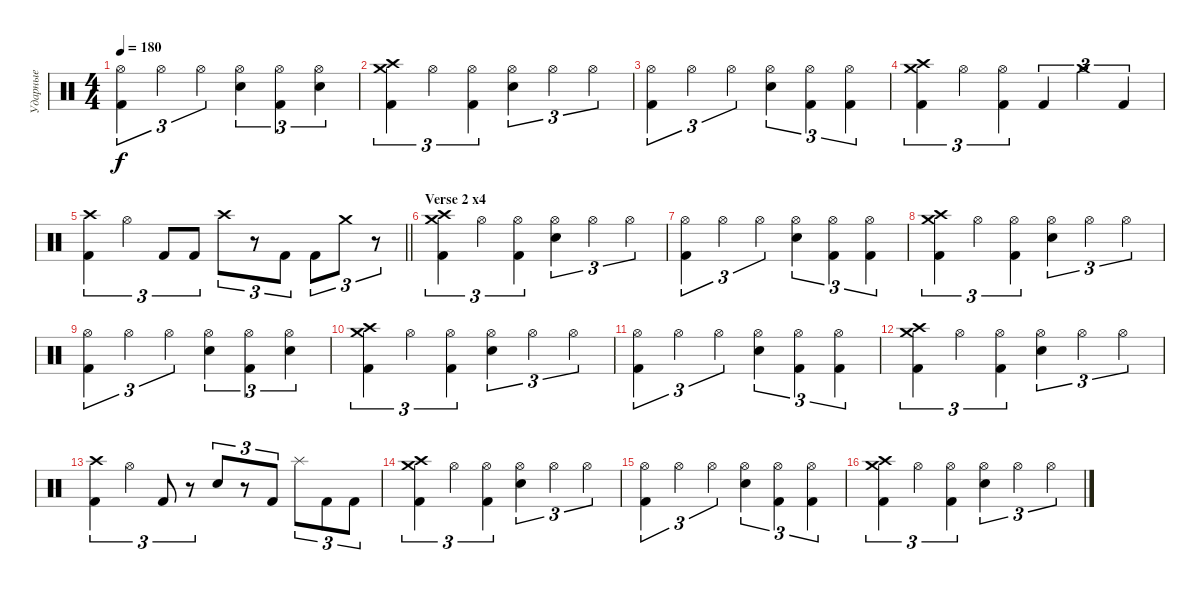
\track ("Ударные" "Ударные") {instrument percussion}
\staff {score}
\articulation defaults
\ts (4 4)
\tempo 180
\clef neutral
\ks c
("Hi-Hat (open)" "Kick (hit) 2").4{tu (3 2) dy f} "Hi-Hat (open)".4{tu (3 2)} "Hi-Hat (open)".4{tu (3 2)} ("Hi-Hat (open)" "Electric Snare (hit)").4{tu (3 2)} ("Hi-Hat (open)" "Kick (hit) 2").4{tu (3 2)} ("Hi-Hat (open)" "Electric Snare (hit)").4{tu (3 2)} |
("Crash medium (hit)" "Crash high (hit)" "Kick (hit) 2").4{tu (3 2)} "Hi-Hat (open)".4{tu (3 2)} ("Hi-Hat (open)" "Kick (hit) 2").4{tu (3 2)} ("Hi-Hat (open)" "Electric Snare (hit)").4{tu (3 2)} "Hi-Hat (open)".4{tu (3 2)} "Hi-Hat (open)".4{tu (3 2)} |
("Hi-Hat (open)" "Kick (hit) 2").4{tu (3 2)} "Hi-Hat (open)".4{tu (3 2)} "Hi-Hat (open)".4{tu (3 2)} ("Hi-Hat (open)" "Electric Snare (hit)").4{tu (3 2)} ("Hi-Hat (open)" "Kick (hit) 2").4{tu (3 2)} ("Hi-Hat (open)" "Kick (hit) 2").4{tu (3 2)} |
("Crash medium (hit)" "Crash high (hit)" "Kick (hit) 2").4{tu (3 2)} "Hi-Hat (open)".4{tu (3 2)} ("Hi-Hat (open)" "Kick (hit) 2").4{tu (3 2)} "Kick (hit) 2".4{tu (3 2)} "Crash medium (hit)".4{tu (3 2)} "Kick (hit) 2".4{tu (3 2)} |
\barLineRight lightlight
("Crash high (hit)" "Kick (hit) 2").4{tu (3 2)} "Hi-Hat (open)".4{tu (3 2)} "Kick (hit) 2".8{tu (3 2)} "Kick (hit) 2".8{tu (3 2)} "Crash high (hit)".8{tu (3 2)} r.8{tu (3 2)} "Kick (hit) 2".8{tu (3 2)} "Kick (hit) 2".8{tu (3 2)} "Crash medium (hit)".8{tu (3 2)} r.8{tu (3 2)} |
\section ("" "Verse 2 x4")
("Crash medium (hit)" "Crash high (hit)" "Kick (hit) 2").4{tu (3 2)} "Hi-Hat (open)".4{tu (3 2)} ("Hi-Hat (open)" "Kick (hit) 2").4{tu (3 2)} ("Hi-Hat (open)" "Electric Snare (hit)").4{tu (3 2)} "Hi-Hat (open)".4{tu (3 2)} "Hi-Hat (open)".4{tu (3 2)} |
("Hi-Hat (open)" "Kick (hit) 2").4{tu (3 2)} "Hi-Hat (open)".4{tu (3 2)} "Hi-Hat (open)".4{tu (3 2)} ("Hi-Hat (open)" "Electric Snare (hit)").4{tu (3 2)} ("Hi-Hat (open)" "Kick (hit) 2").4{tu (3 2)} ("Hi-Hat (open)" "Kick (hit) 2").4{tu (3 2)} |
("Crash medium (hit)" "Crash high (hit)" "Kick (hit) 2").4{tu (3 2)} "Hi-Hat (open)".4{tu (3 2)} ("Hi-Hat (open)" "Kick (hit) 2").4{tu (3 2)} ("Hi-Hat (open)" "Electric Snare (hit)").4{tu (3 2)} "Hi-Hat (open)".4{tu (3 2)} "Hi-Hat (open)".4{tu (3 2)} |
("Hi-Hat (open)" "Kick (hit) 2").4{tu (3 2)} "Hi-Hat (open)".4{tu (3 2)} "Hi-Hat (open)".4{tu (3 2)} ("Hi-Hat (open)" "Electric Snare (hit)").4{tu (3 2)} ("Hi-Hat (open)" "Kick (hit) 2").4{tu (3 2)} ("Hi-Hat (open)" "Electric Snare (hit)").4{tu (3 2)} |
("Crash medium (hit)" "Crash high (hit)" "Kick (hit) 2").4{tu (3 2)} "Hi-Hat (open)".4{tu (3 2)} ("Hi-Hat (open)" "Kick (hit) 2").4{tu (3 2)} ("Hi-Hat (open)" "Electric Snare (hit)").4{tu (3 2)} "Hi-Hat (open)".4{tu (3 2)} "Hi-Hat (open)".4{tu (3 2)} |
("Hi-Hat (open)" "Kick (hit) 2").4{tu (3 2)} "Hi-Hat (open)".4{tu (3 2)} "Hi-Hat (open)".4{tu (3 2)} ("Hi-Hat (open)" "Electric Snare (hit)").4{tu (3 2)} ("Hi-Hat (open)" "Kick (hit) 2").4{tu (3 2)} ("Hi-Hat (open)" "Kick (hit) 2").4{tu (3 2)} |
("Crash medium (hit)" "Crash high (hit)" "Kick (hit) 2").4{tu (3 2)} "Hi-Hat (open)".4{tu (3 2)} ("Hi-Hat (open)" "Kick (hit) 2").4{tu (3 2)} ("Hi-Hat (open)" "Electric Snare (hit)").4{tu (3 2)} "Hi-Hat (open)".4{tu (3 2)} "Hi-Hat (open)".4{tu (3 2)} |
("Crash high (hit)" "Kick (hit) 2").4{tu (3 2)} "Hi-Hat (open)".4{tu (3 2)} "Kick (hit) 2".8{tu (3 2)} r.8{tu (3 2)} "Electric Snare (hit)".8{tu (3 2)} r.8{tu (3 2)} "Kick (hit) 2".8{tu (3 2)} "Splash (hit)".8{tu (3 2)} "Kick (hit) 2".8{tu (3 2)} "Kick (hit) 2".8{tu (3 2)} |
("Crash medium (hit)" "Crash high (hit)" "Kick (hit) 2").4{tu (3 2)} "Hi-Hat (open)".4{tu (3 2)} ("Hi-Hat (open)" "Kick (hit) 2").4{tu (3 2)} ("Hi-Hat (open)" "Electric Snare (hit)").4{tu (3 2)} "Hi-Hat (open)".4{tu (3 2)} "Hi-Hat (open)".4{tu (3 2)} |
("Hi-Hat (open)" "Kick (hit) 2").4{tu (3 2)} "Hi-Hat (open)".4{tu (3 2)} "Hi-Hat (open)".4{tu (3 2)} ("Hi-Hat (open)" "Electric Snare (hit)").4{tu (3 2)} ("Hi-Hat (open)" "Kick (hit) 2").4{tu (3 2)} ("Hi-Hat (open)" "Kick (hit) 2").4{tu (3 2)} |
("Crash medium (hit)" "Crash high (hit)" "Kick (hit) 2").4{tu (3 2)} "Hi-Hat (open)".4{tu (3 2)} ("Hi-Hat (open)" "Kick (hit) 2").4{tu (3 2)} ("Hi-Hat (open)" "Electric Snare (hit)").4{tu (3 2)} "Hi-Hat (open)".4{tu (3 2)} "Hi-Hat (open)".4{tu (3 2)}
